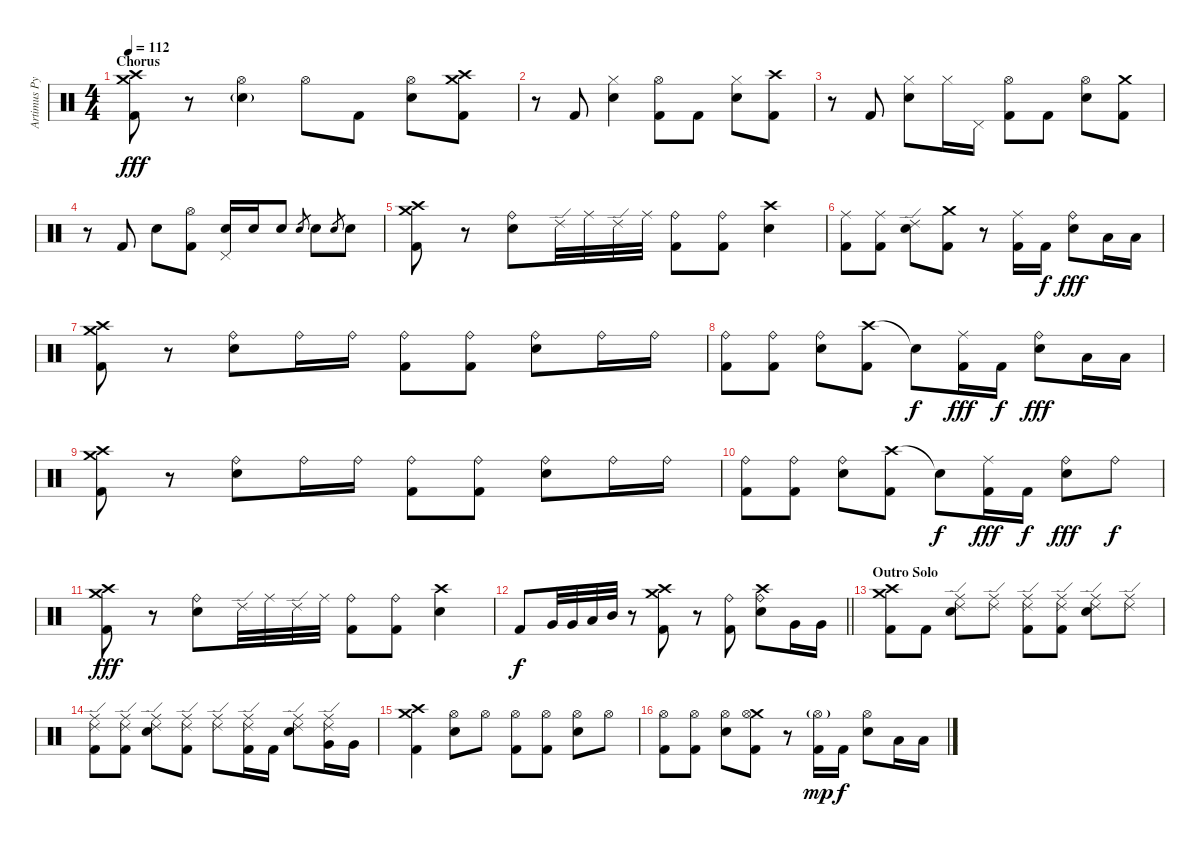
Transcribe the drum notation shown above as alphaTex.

\track ("Artimus Pyle" "Artimus Py") {instrument percussion}
\staff {score}
\articulation defaults
\ts (4 4)
\section ("" "Chorus")
\tempo 112
\clef neutral
\ks c
("Crash medium (hit)" "Crash high (hit)" "Kick (hit) 2").8{dy fff} r.8 ("Snare (hit) 2"{g} "Hi-Hat (open)").4 "Hi-Hat (open)".8 "Kick (hit) 2".8 ("Snare (hit) 2" "Hi-Hat (open)").8 ("Crash medium (hit)" "Crash high (hit)" "Kick (hit) 2").8 |
r.8 "Kick (hit) 2".8 ("Snare (hit) 2" "Hi-Hat (closed)").4 ("Hi-Hat (open)" "Kick (hit) 2").8 "Kick (hit) 2".8 ("Snare (hit) 2" "Hi-Hat (closed)").8 ("Crash high (hit)" "Kick (hit) 2").8 |
r.8 "Kick (hit) 2".8 ("Snare (hit) 2" "Hi-Hat (closed)").8 "Hi-Hat (closed)".16 "Pedal Hi-Hat (hit)".16 ("Hi-Hat (open)" "Kick (hit) 2").8 "Kick (hit) 2".8 ("Snare (hit) 2" "Hi-Hat (open)").8 ("Crash medium (hit)" "Kick (hit) 2").8 |
r.8 "Kick (hit) 2".8 "Snare (hit) 2".8 ("Hi-Hat (open)" "Kick (hit) 2").8 ("Snare (hit) 2" "Pedal Hi-Hat (hit)").16 "Snare (hit) 2".16 "Snare (hit) 2".8 "Snare (hit) 2".8{gr} "Snare (hit) 2".8 "Snare (hit) 2".8{gr} "Snare (hit) 2".8 |
("Crash medium (hit)" "Crash high (hit)" "Kick (hit) 2").8 r.8 ("Ride (bell)" "Snare (hit) 2").8 "Ride (edge) 2".32 "Ride (middle)".32 "Ride (edge) 2".32 "Ride (middle)".32 ("Ride (bell)" "Kick (hit) 2").8 ("Ride (bell)" "Kick (hit) 2").8 ("Crash high (hit)" "Snare (hit) 2").4 |
("Ride (middle)" "Kick (hit) 2").8 ("Ride (middle)" "Kick (hit) 2").8 ("Ride (edge) 2" "Snare (hit) 2").8 ("Crash medium (hit)" "Kick (hit) 2").8 r.8 ("Ride (middle)" "Kick (hit) 2").16 "Kick (hit) 2".16{dy f} ("Ride (bell)" "Snare (hit) 2").8{dy fff} "Low Tom (hit)".16 "Low Tom (hit)".16 |
("Crash medium (hit)" "Crash high (hit)" "Kick (hit) 2").8 r.8 ("Ride (bell)" "Snare (hit) 2").8 "Ride (bell)".16 "Ride (bell)".16 ("Ride (bell)" "Kick (hit) 2").8 ("Ride (bell)" "Kick (hit) 2").8 ("Ride (bell)" "Snare (hit) 2").8 "Ride (bell)".16 "Ride (bell)".16 |
("Ride (bell)" "Kick (hit) 2").8 ("Ride (bell)" "Kick (hit) 2").8 ("Ride (bell)" "Snare (hit) 2").8 ("Crash high (hit)" "Kick (hit) 2").8 "Snare (hit)"{t}.8{dy f} ("Ride (middle)" "Kick (hit) 2").16{dy fff} "Kick (hit) 2".16{dy f} ("Ride (bell)" "Snare (hit) 2").8{dy fff} "Low Tom (hit)".16 "Low Tom (hit)".16 |
("Crash medium (hit)" "Crash high (hit)" "Kick (hit) 2").8 r.8 ("Ride (bell)" "Snare (hit) 2").8 "Ride (bell)".16 "Ride (bell)".16 ("Ride (bell)" "Kick (hit) 2").8 ("Ride (bell)" "Kick (hit) 2").8 ("Ride (bell)" "Snare (hit) 2").8 "Ride (bell)".16 "Ride (bell)".16 |
("Ride (bell)" "Kick (hit) 2").8 ("Ride (bell)" "Kick (hit) 2").8 ("Ride (bell)" "Snare (hit) 2").8 ("Crash high (hit)" "Kick (hit) 2").8 "Snare (hit)"{t}.8{dy f} ("Ride (middle)" "Kick (hit) 2").16{dy fff} "Kick (hit) 2".16{dy f} ("Ride (bell)" "Snare (hit) 2").8{dy fff} "Ride (bell)".8{dy f} |
("Crash medium (hit)" "Crash high (hit)" "Kick (hit) 2").8{dy fff} r.8 ("Ride (bell)" "Snare (hit) 2").8 "Ride (edge) 2".32 "Ride (middle)".32 "Ride (edge) 2".32 "Ride (middle)".32 ("Ride (bell)" "Kick (hit) 2").8 ("Ride (bell)" "Kick (hit) 2").8 ("Crash high (hit)" "Snare (hit) 2").4 |
\barLineRight lightlight "Kick (hit) 2".8{dy f} "Very Low Tom (hit)".32 "Very Low Tom (hit)".32 "Low Tom (hit)".32 "Mid Tom (hit)".32
r.8 ("Crash medium (hit)" "Crash high (hit)" "Kick (hit) 2").8 r.8 ("Ride (bell)" "Kick (hit) 2").8 ("Ride (bell)" "Crash high (hit)" "Snare (hit) 2").8 "Very Low Tom (hit)".16 "Very Low Tom (hit)".16 |
\section ("" "Outro Solo")
("Crash medium (hit)" "Crash high (hit)" "Kick (hit) 2").8 "Kick (hit) 2".8 ("Ride (middle)" "Ride (edge) 2" "Snare (hit) 2").8 ("Ride (middle)" "Ride (edge) 2").8 ("Ride (middle)" "Ride (edge) 2" "Kick (hit) 2").8 ("Ride (middle)" "Ride (edge) 2" "Kick (hit) 2").8 ("Ride (middle)" "Ride (edge) 2" "Snare (hit) 2").8 ("Ride (middle)" "Ride (edge) 2").8 |
("Ride (middle)" "Ride (edge) 2" "Kick (hit) 2").8 ("Ride (middle)" "Ride (edge) 2" "Kick (hit) 2").8 ("Ride (middle)" "Ride (edge) 2" "Snare (hit) 2").8 ("Ride (middle)" "Ride (edge) 2" "Kick (hit) 2").8 ("Ride (middle)" "Ride (edge) 2").8 ("Ride (middle)" "Ride (edge) 2" "Kick (hit) 2").16 "Kick (hit) 2".16 ("Ride (middle)" "Ride (edge) 2" "Snare (hit) 2").8 ("Ride (middle)" "Ride (edge) 2" "Very Low Tom (hit)").16 "Very Low Tom (hit)".16 |
("Crash medium (hit)" "Crash high (hit)" "Kick (hit) 2").4 ("Snare (hit) 2" "Hi-Hat (open)").8 "Hi-Hat (open)".8 ("Hi-Hat (open)" "Kick (hit) 2").8 ("Hi-Hat (open)" "Kick (hit) 2").8 ("Snare (hit) 2" "Hi-Hat (open)").8 "Hi-Hat (open)".8 |
("Hi-Hat (open)" "Kick (hit) 2").8 ("Hi-Hat (open)" "Kick (hit) 2").8 ("Snare (hit) 2" "Hi-Hat (open)").8 ("Crash medium (hit)" "Hi-Hat (open)" "Kick (hit) 2").8 r.8 ("Hi-Hat (open)"{g} "Kick (hit) 2").16{dy mp} "Kick (hit) 2".16{dy f} ("Snare (hit) 2" "Hi-Hat (open)").8 "Low Tom (hit)".16 "Low Tom (hit)".16
